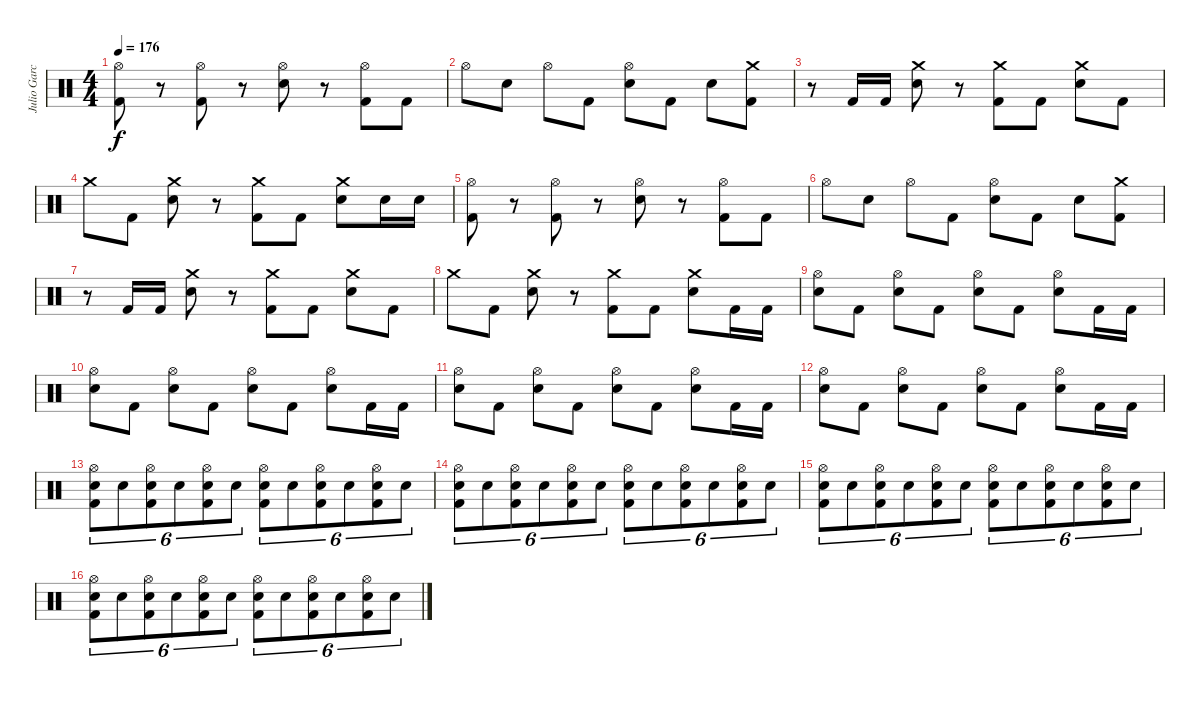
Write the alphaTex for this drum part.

\track ("Julio Garcia" "Julio Garc") {instrument percussion}
\staff {score}
\articulation defaults
\ts (4 4)
\tempo 176
\clef neutral
\ks c
("Hi-Hat (open)" "Kick (hit) 2").8{dy f} r.8 ("Hi-Hat (open)" "Kick (hit) 2").8 r.8 ("Hi-Hat (open)" "Electric Snare (hit)").8 r.8 ("Hi-Hat (open)" "Kick (hit) 2").8 "Kick (hit) 2".8 |
"Hi-Hat (open)".8 "Electric Snare (hit)".8 "Hi-Hat (open)".8 "Kick (hit) 2".8 ("Hi-Hat (open)" "Electric Snare (hit)").8 "Kick (hit) 2".8 "Electric Snare (hit)".8 ("Crash medium (hit)" "Kick (hit) 2").8 |
r.8 "Kick (hit) 2".16 "Kick (hit) 2".16 ("Crash medium (hit)" "Electric Snare (hit)").8 r.8 ("Crash medium (hit)" "Kick (hit) 2").8 "Kick (hit) 2".8 ("Crash medium (hit)" "Electric Snare (hit)").8 "Kick (hit) 2".8 |
"Crash medium (hit)".8 "Kick (hit) 2".8 ("Crash medium (hit)" "Electric Snare (hit)").8 r.8 ("Crash medium (hit)" "Kick (hit) 2").8 "Kick (hit) 2".8 ("Crash medium (hit)" "Electric Snare (hit)").8 "Electric Snare (hit)".16 "Electric Snare (hit)".16 |
("Hi-Hat (open)" "Kick (hit) 2").8 r.8 ("Hi-Hat (open)" "Kick (hit) 2").8 r.8 ("Hi-Hat (open)" "Electric Snare (hit)").8 r.8 ("Hi-Hat (open)" "Kick (hit) 2").8 "Kick (hit) 2".8 |
"Hi-Hat (open)".8 "Electric Snare (hit)".8 "Hi-Hat (open)".8 "Kick (hit) 2".8 ("Hi-Hat (open)" "Electric Snare (hit)").8 "Kick (hit) 2".8 "Electric Snare (hit)".8 ("Crash medium (hit)" "Kick (hit) 2").8 |
r.8 "Kick (hit) 2".16 "Kick (hit) 2".16 ("Crash medium (hit)" "Electric Snare (hit)").8 r.8 ("Crash medium (hit)" "Kick (hit) 2").8 "Kick (hit) 2".8 ("Crash medium (hit)" "Electric Snare (hit)").8 "Kick (hit) 2".8 |
"Crash medium (hit)".8 "Kick (hit) 2".8 ("Crash medium (hit)" "Electric Snare (hit)").8 r.8 ("Crash medium (hit)" "Kick (hit) 2").8 "Kick (hit) 2".8 ("Crash medium (hit)" "Electric Snare (hit)").8 "Kick (hit) 2".16 "Kick (hit) 2".16 |
("Hi-Hat (open)" "Electric Snare (hit)").8 "Kick (hit) 2".8 ("Hi-Hat (open)" "Electric Snare (hit)").8 "Kick (hit) 2".8 ("Hi-Hat (open)" "Electric Snare (hit)").8 "Kick (hit) 2".8 ("Hi-Hat (open)" "Electric Snare (hit)").8 "Kick (hit) 2".16 "Kick (hit) 2".16 |
("Hi-Hat (open)" "Electric Snare (hit)").8 "Kick (hit) 2".8 ("Hi-Hat (open)" "Electric Snare (hit)").8 "Kick (hit) 2".8 ("Hi-Hat (open)" "Electric Snare (hit)").8 "Kick (hit) 2".8 ("Hi-Hat (open)" "Electric Snare (hit)").8 "Kick (hit) 2".16 "Kick (hit) 2".16 |
("Hi-Hat (open)" "Electric Snare (hit)").8 "Kick (hit) 2".8 ("Hi-Hat (open)" "Electric Snare (hit)").8 "Kick (hit) 2".8 ("Hi-Hat (open)" "Electric Snare (hit)").8 "Kick (hit) 2".8 ("Hi-Hat (open)" "Electric Snare (hit)").8 "Kick (hit) 2".16 "Kick (hit) 2".16 |
("Hi-Hat (open)" "Electric Snare (hit)").8 "Kick (hit) 2".8 ("Hi-Hat (open)" "Electric Snare (hit)").8 "Kick (hit) 2".8 ("Hi-Hat (open)" "Electric Snare (hit)").8 "Kick (hit) 2".8 ("Hi-Hat (open)" "Electric Snare (hit)").8 "Kick (hit) 2".16 "Kick (hit) 2".16 |
("Hi-Hat (open)" "Electric Snare (hit)" "Kick (hit) 2").8{tu (6 4)} "Electric Snare (hit)".8{tu (6 4)} ("Hi-Hat (open)" "Electric Snare (hit)" "Kick (hit) 2").8{tu (6 4)} "Electric Snare (hit)".8{tu (6 4)} ("Hi-Hat (open)" "Electric Snare (hit)" "Kick (hit) 2").8{tu (6 4)} "Electric Snare (hit)".8{tu (6 4)} ("Hi-Hat (open)" "Electric Snare (hit)" "Kick (hit) 2").8{tu (6 4)} "Electric Snare (hit)".8{tu (6 4)} ("Hi-Hat (open)" "Electric Snare (hit)" "Kick (hit) 2").8{tu (6 4)} "Electric Snare (hit)".8{tu (6 4)} ("Hi-Hat (open)" "Electric Snare (hit)" "Kick (hit) 2").8{tu (6 4)} "Electric Snare (hit)".8{tu (6 4)} |
("Hi-Hat (open)" "Electric Snare (hit)" "Kick (hit) 2").8{tu (6 4)} "Electric Snare (hit)".8{tu (6 4)} ("Hi-Hat (open)" "Electric Snare (hit)" "Kick (hit) 2").8{tu (6 4)} "Electric Snare (hit)".8{tu (6 4)} ("Hi-Hat (open)" "Electric Snare (hit)" "Kick (hit) 2").8{tu (6 4)} "Electric Snare (hit)".8{tu (6 4)} ("Hi-Hat (open)" "Electric Snare (hit)" "Kick (hit) 2").8{tu (6 4)} "Electric Snare (hit)".8{tu (6 4)} ("Hi-Hat (open)" "Electric Snare (hit)" "Kick (hit) 2").8{tu (6 4)} "Electric Snare (hit)".8{tu (6 4)} ("Hi-Hat (open)" "Electric Snare (hit)" "Kick (hit) 2").8{tu (6 4)} "Electric Snare (hit)".8{tu (6 4)} |
("Hi-Hat (open)" "Electric Snare (hit)" "Kick (hit) 2").8{tu (6 4)} "Electric Snare (hit)".8{tu (6 4)} ("Hi-Hat (open)" "Electric Snare (hit)" "Kick (hit) 2").8{tu (6 4)} "Electric Snare (hit)".8{tu (6 4)} ("Hi-Hat (open)" "Electric Snare (hit)" "Kick (hit) 2").8{tu (6 4)} "Electric Snare (hit)".8{tu (6 4)} ("Hi-Hat (open)" "Electric Snare (hit)" "Kick (hit) 2").8{tu (6 4)} "Electric Snare (hit)".8{tu (6 4)} ("Hi-Hat (open)" "Electric Snare (hit)" "Kick (hit) 2").8{tu (6 4)} "Electric Snare (hit)".8{tu (6 4)} ("Hi-Hat (open)" "Electric Snare (hit)" "Kick (hit) 2").8{tu (6 4)} "Electric Snare (hit)".8{tu (6 4)} |
("Hi-Hat (open)" "Electric Snare (hit)" "Kick (hit) 2").8{tu (6 4)} "Electric Snare (hit)".8{tu (6 4)} ("Hi-Hat (open)" "Electric Snare (hit)" "Kick (hit) 2").8{tu (6 4)} "Electric Snare (hit)".8{tu (6 4)} ("Hi-Hat (open)" "Electric Snare (hit)" "Kick (hit) 2").8{tu (6 4)} "Electric Snare (hit)".8{tu (6 4)} ("Hi-Hat (open)" "Electric Snare (hit)" "Kick (hit) 2").8{tu (6 4)} "Electric Snare (hit)".8{tu (6 4)} ("Hi-Hat (open)" "Electric Snare (hit)" "Kick (hit) 2").8{tu (6 4)} "Electric Snare (hit)".8{tu (6 4)} ("Hi-Hat (open)" "Electric Snare (hit)" "Kick (hit) 2").8{tu (6 4)} "Electric Snare (hit)".8{tu (6 4)}
